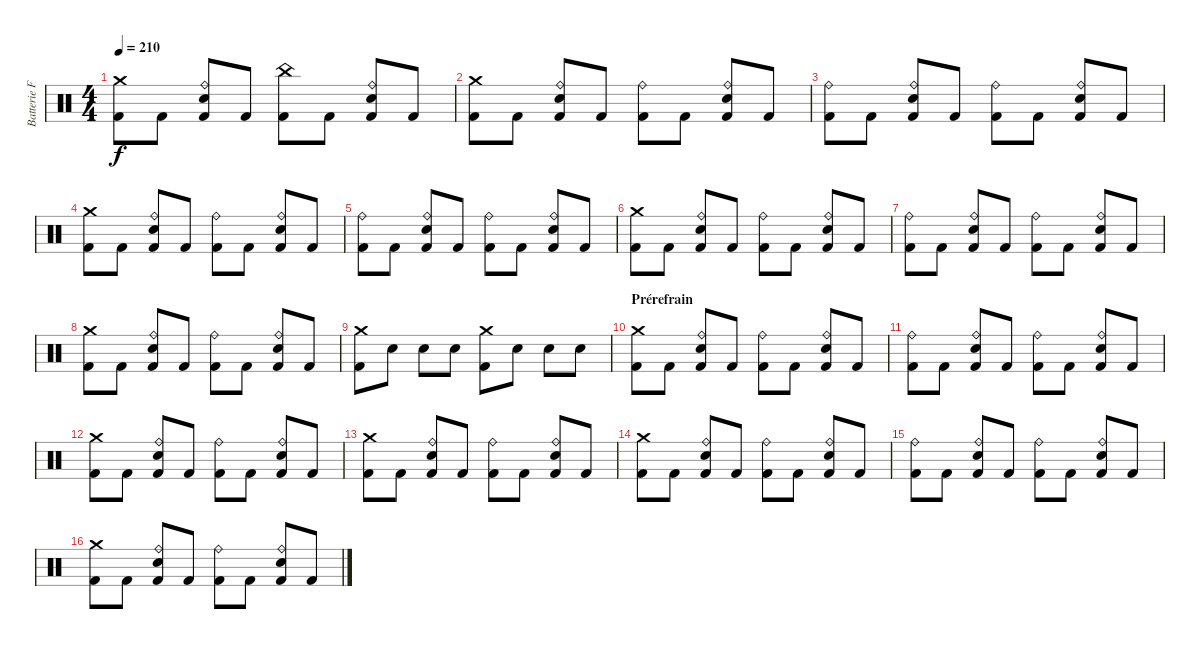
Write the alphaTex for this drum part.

\track ("Batterie Franck" "Batterie F") {instrument percussion}
\staff {score}
\articulation defaults
\ts (4 4)
\tempo 210
\clef neutral
\ks c
("Crash medium (hit)" "Kick (hit) 2").8{dy f} "Kick (hit) 2".8 ("Ride (bell)" "Snare (hit) 2" "Kick (hit) 2").8 "Kick (hit) 2".8 ("China (hit)" "Kick (hit) 2").8 "Kick (hit) 2".8 ("Ride (bell)" "Snare (hit) 2" "Kick (hit) 2").8 "Kick (hit) 2".8 |
("Crash medium (hit)" "Kick (hit) 2").8 "Kick (hit) 2".8 ("Ride (bell)" "Snare (hit) 2" "Kick (hit) 2").8 "Kick (hit) 2".8 ("Ride (bell)" "Kick (hit) 2").8 "Kick (hit) 2".8 ("Ride (bell)" "Snare (hit) 2" "Kick (hit) 2").8 "Kick (hit) 2".8 |
("Ride (bell)" "Kick (hit) 2").8 "Kick (hit) 2".8 ("Ride (bell)" "Snare (hit) 2" "Kick (hit) 2").8 "Kick (hit) 2".8 ("Ride (bell)" "Kick (hit) 2").8 "Kick (hit) 2".8 ("Ride (bell)" "Snare (hit) 2" "Kick (hit) 2").8 "Kick (hit) 2".8 |
("Crash medium (hit)" "Kick (hit) 2").8 "Kick (hit) 2".8 ("Ride (bell)" "Snare (hit) 2" "Kick (hit) 2").8 "Kick (hit) 2".8 ("Ride (bell)" "Kick (hit) 2").8 "Kick (hit) 2".8 ("Ride (bell)" "Snare (hit) 2" "Kick (hit) 2").8 "Kick (hit) 2".8 |
("Ride (bell)" "Kick (hit) 2").8 "Kick (hit) 2".8 ("Ride (bell)" "Snare (hit) 2" "Kick (hit) 2").8 "Kick (hit) 2".8 ("Ride (bell)" "Kick (hit) 2").8 "Kick (hit) 2".8 ("Ride (bell)" "Snare (hit) 2" "Kick (hit) 2").8 "Kick (hit) 2".8 |
("Crash medium (hit)" "Kick (hit) 2").8 "Kick (hit) 2".8 ("Ride (bell)" "Snare (hit) 2" "Kick (hit) 2").8 "Kick (hit) 2".8 ("Ride (bell)" "Kick (hit) 2").8 "Kick (hit) 2".8 ("Ride (bell)" "Snare (hit) 2" "Kick (hit) 2").8 "Kick (hit) 2".8 |
("Ride (bell)" "Kick (hit) 2").8 "Kick (hit) 2".8 ("Ride (bell)" "Snare (hit) 2" "Kick (hit) 2").8 "Kick (hit) 2".8 ("Ride (bell)" "Kick (hit) 2").8 "Kick (hit) 2".8 ("Ride (bell)" "Snare (hit) 2" "Kick (hit) 2").8 "Kick (hit) 2".8 |
("Crash medium (hit)" "Kick (hit) 2").8 "Kick (hit) 2".8 ("Ride (bell)" "Snare (hit) 2" "Kick (hit) 2").8 "Kick (hit) 2".8 ("Ride (bell)" "Kick (hit) 2").8 "Kick (hit) 2".8 ("Ride (bell)" "Snare (hit) 2" "Kick (hit) 2").8 "Kick (hit) 2".8 |
("Crash medium (hit)" "Kick (hit) 2").8 "Snare (hit) 2".8 "Snare (hit) 2".8 "Snare (hit) 2".8 ("Crash medium (hit)" "Kick (hit) 2").8 "Snare (hit) 2".8 "Snare (hit) 2".8 "Snare (hit) 2".8 |
\section ("" "Prérefrain")
("Crash medium (hit)" "Kick (hit) 2").8 "Kick (hit) 2".8 ("Ride (bell)" "Snare (hit) 2" "Kick (hit) 2").8 "Kick (hit) 2".8 ("Ride (bell)" "Kick (hit) 2").8 "Kick (hit) 2".8 ("Ride (bell)" "Snare (hit) 2" "Kick (hit) 2").8 "Kick (hit) 2".8 |
("Ride (bell)" "Kick (hit) 2").8 "Kick (hit) 2".8 ("Ride (bell)" "Snare (hit) 2" "Kick (hit) 2").8 "Kick (hit) 2".8 ("Ride (bell)" "Kick (hit) 2").8 "Kick (hit) 2".8 ("Ride (bell)" "Snare (hit) 2" "Kick (hit) 2").8 "Kick (hit) 2".8 |
("Crash medium (hit)" "Kick (hit) 2").8 "Kick (hit) 2".8 ("Ride (bell)" "Snare (hit) 2" "Kick (hit) 2").8 "Kick (hit) 2".8 ("Ride (bell)" "Kick (hit) 2").8 "Kick (hit) 2".8 ("Ride (bell)" "Snare (hit) 2" "Kick (hit) 2").8 "Kick (hit) 2".8 |
("Crash medium (hit)" "Kick (hit) 2").8 "Kick (hit) 2".8 ("Ride (bell)" "Snare (hit) 2" "Kick (hit) 2").8 "Kick (hit) 2".8 ("Ride (bell)" "Kick (hit) 2").8 "Kick (hit) 2".8 ("Ride (bell)" "Snare (hit) 2" "Kick (hit) 2").8 "Kick (hit) 2".8 |
("Crash medium (hit)" "Kick (hit) 2").8 "Kick (hit) 2".8 ("Ride (bell)" "Snare (hit) 2" "Kick (hit) 2").8 "Kick (hit) 2".8 ("Ride (bell)" "Kick (hit) 2").8 "Kick (hit) 2".8 ("Ride (bell)" "Snare (hit) 2" "Kick (hit) 2").8 "Kick (hit) 2".8 |
("Ride (bell)" "Kick (hit) 2").8 "Kick (hit) 2".8 ("Ride (bell)" "Snare (hit) 2" "Kick (hit) 2").8 "Kick (hit) 2".8 ("Ride (bell)" "Kick (hit) 2").8 "Kick (hit) 2".8 ("Ride (bell)" "Snare (hit) 2" "Kick (hit) 2").8 "Kick (hit) 2".8 |
("Crash medium (hit)" "Kick (hit) 2").8 "Kick (hit) 2".8 ("Ride (bell)" "Snare (hit) 2" "Kick (hit) 2").8 "Kick (hit) 2".8 ("Ride (bell)" "Kick (hit) 2").8 "Kick (hit) 2".8 ("Ride (bell)" "Snare (hit) 2" "Kick (hit) 2").8 "Kick (hit) 2".8
